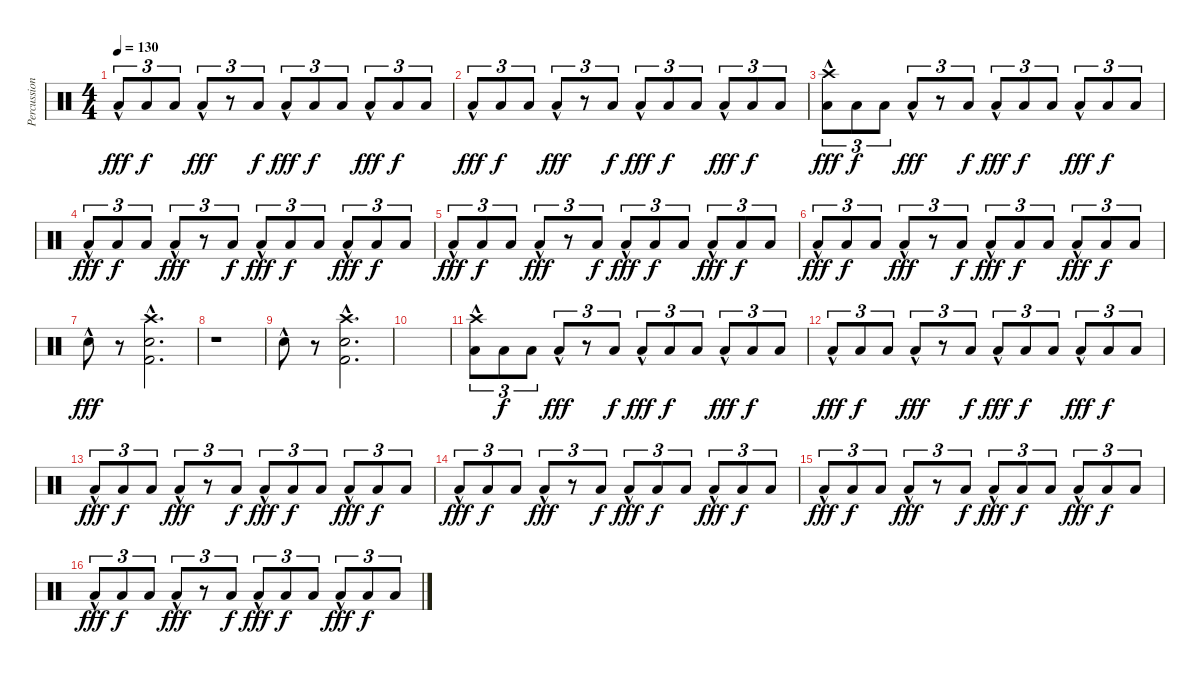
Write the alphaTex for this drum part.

\track ("Percussion" "Percussion") {instrument percussion}
\staff {score}
\articulation defaults
\ts (4 4)
\tempo 130
\clef neutral
\ks c "Low Tom (hit)"{hac}.8{tu (3 2) dy fff} "Low Tom (hit)".8{tu (3 2) dy f} "Low Tom (hit)".8{tu (3 2)} "Low Tom (hit)"{hac}.8{tu (3 2) dy fff}
r.8{tu (3 2)} "Low Tom (hit)".8{tu (3 2) dy f} "Low Tom (hit)"{hac}.8{tu (3 2) dy fff} "Low Tom (hit)".8{tu (3 2) dy f} "Low Tom (hit)".8{tu (3 2)} "Low Tom (hit)"{hac}.8{tu (3 2) dy fff} "Low Tom (hit)".8{tu (3 2) dy f} "Low Tom (hit)".8{tu (3 2)} |
"Low Tom (hit)"{hac}.8{tu (3 2) dy fff} "Low Tom (hit)".8{tu (3 2) dy f} "Low Tom (hit)".8{tu (3 2)} "Low Tom (hit)"{hac}.8{tu (3 2) dy fff} r.8{tu (3 2)} "Low Tom (hit)".8{tu (3 2) dy f} "Low Tom (hit)"{hac}.8{tu (3 2) dy fff} "Low Tom (hit)".8{tu (3 2) dy f} "Low Tom (hit)".8{tu (3 2)} "Low Tom (hit)"{hac}.8{tu (3 2) dy fff} "Low Tom (hit)".8{tu (3 2) dy f} "Low Tom (hit)".8{tu (3 2)} |
("Crash high (hit)"{hac} "Low Tom (hit)"{hac}).8{tu (3 2) dy fff} "Low Tom (hit)".8{tu (3 2) dy f} "Low Tom (hit)".8{tu (3 2)} "Low Tom (hit)"{hac}.8{tu (3 2) dy fff} r.8{tu (3 2)} "Low Tom (hit)".8{tu (3 2) dy f} "Low Tom (hit)"{hac}.8{tu (3 2) dy fff} "Low Tom (hit)".8{tu (3 2) dy f} "Low Tom (hit)".8{tu (3 2)} "Low Tom (hit)"{hac}.8{tu (3 2) dy fff} "Low Tom (hit)".8{tu (3 2) dy f} "Low Tom (hit)".8{tu (3 2)} |
"Low Tom (hit)"{hac}.8{tu (3 2) dy fff} "Low Tom (hit)".8{tu (3 2) dy f} "Low Tom (hit)".8{tu (3 2)} "Low Tom (hit)"{hac}.8{tu (3 2) dy fff} r.8{tu (3 2)} "Low Tom (hit)".8{tu (3 2) dy f} "Low Tom (hit)"{hac}.8{tu (3 2) dy fff} "Low Tom (hit)".8{tu (3 2) dy f} "Low Tom (hit)".8{tu (3 2)} "Low Tom (hit)"{hac}.8{tu (3 2) dy fff} "Low Tom (hit)".8{tu (3 2) dy f} "Low Tom (hit)".8{tu (3 2)} |
"Low Tom (hit)"{hac}.8{tu (3 2) dy fff} "Low Tom (hit)".8{tu (3 2) dy f} "Low Tom (hit)".8{tu (3 2)} "Low Tom (hit)"{hac}.8{tu (3 2) dy fff} r.8{tu (3 2)} "Low Tom (hit)".8{tu (3 2) dy f} "Low Tom (hit)"{hac}.8{tu (3 2) dy fff} "Low Tom (hit)".8{tu (3 2) dy f} "Low Tom (hit)".8{tu (3 2)} "Low Tom (hit)"{hac}.8{tu (3 2) dy fff} "Low Tom (hit)".8{tu (3 2) dy f} "Low Tom (hit)".8{tu (3 2)} |
"Low Tom (hit)"{hac}.8{tu (3 2) dy fff} "Low Tom (hit)".8{tu (3 2) dy f} "Low Tom (hit)".8{tu (3 2)} "Low Tom (hit)"{hac}.8{tu (3 2) dy fff} r.8{tu (3 2)} "Low Tom (hit)".8{tu (3 2) dy f} "Low Tom (hit)"{hac}.8{tu (3 2) dy fff} "Low Tom (hit)".8{tu (3 2) dy f} "Low Tom (hit)".8{tu (3 2)} "Low Tom (hit)"{hac}.8{tu (3 2) dy fff} "Low Tom (hit)".8{tu (3 2) dy f} "Low Tom (hit)".8{tu (3 2)} |
"Snare (hit) 2"{hac}.8{dy fff} r.8 ("Crash high (hit)"{hac} "Snare (hit) 2"{hac} "Kick (hit) 2"{hac}).2{d} |
r.1 |
"Snare (hit) 2"{hac}.8 r.8 ("Crash high (hit)"{hac} "Snare (hit) 2"{hac} "Kick (hit) 2"{hac}).2{d} |
|
("Crash high (hit)"{hac} "Low Tom (hit)"{hac}).8{tu (3 2)} "Low Tom (hit)".8{tu (3 2) dy f} "Low Tom (hit)".8{tu (3 2)} "Low Tom (hit)"{hac}.8{tu (3 2) dy fff} r.8{tu (3 2)} "Low Tom (hit)".8{tu (3 2) dy f} "Low Tom (hit)"{hac}.8{tu (3 2) dy fff} "Low Tom (hit)".8{tu (3 2) dy f} "Low Tom (hit)".8{tu (3 2)} "Low Tom (hit)"{hac}.8{tu (3 2) dy fff} "Low Tom (hit)".8{tu (3 2) dy f} "Low Tom (hit)".8{tu (3 2)} |
"Low Tom (hit)"{hac}.8{tu (3 2) dy fff volume 8} "Low Tom (hit)".8{tu (3 2) dy f} "Low Tom (hit)".8{tu (3 2)} "Low Tom (hit)"{hac}.8{tu (3 2) dy fff} r.8{tu (3 2)} "Low Tom (hit)".8{tu (3 2) dy f} "Low Tom (hit)"{hac}.8{tu (3 2) dy fff} "Low Tom (hit)".8{tu (3 2) dy f} "Low Tom (hit)".8{tu (3 2)} "Low Tom (hit)"{hac}.8{tu (3 2) dy fff} "Low Tom (hit)".8{tu (3 2) dy f} "Low Tom (hit)".8{tu (3 2)} |
"Low Tom (hit)"{hac}.8{tu (3 2) dy fff} "Low Tom (hit)".8{tu (3 2) dy f} "Low Tom (hit)".8{tu (3 2)} "Low Tom (hit)"{hac}.8{tu (3 2) dy fff} r.8{tu (3 2)} "Low Tom (hit)".8{tu (3 2) dy f} "Low Tom (hit)"{hac}.8{tu (3 2) dy fff} "Low Tom (hit)".8{tu (3 2) dy f} "Low Tom (hit)".8{tu (3 2)} "Low Tom (hit)"{hac}.8{tu (3 2) dy fff} "Low Tom (hit)".8{tu (3 2) dy f} "Low Tom (hit)".8{tu (3 2)} |
"Low Tom (hit)"{hac}.8{tu (3 2) dy fff} "Low Tom (hit)".8{tu (3 2) dy f} "Low Tom (hit)".8{tu (3 2)} "Low Tom (hit)"{hac}.8{tu (3 2) dy fff} r.8{tu (3 2)} "Low Tom (hit)".8{tu (3 2) dy f} "Low Tom (hit)"{hac}.8{tu (3 2) dy fff} "Low Tom (hit)".8{tu (3 2) dy f} "Low Tom (hit)".8{tu (3 2)} "Low Tom (hit)"{hac}.8{tu (3 2) dy fff} "Low Tom (hit)".8{tu (3 2) dy f} "Low Tom (hit)".8{tu (3 2)} |
"Low Tom (hit)"{hac}.8{tu (3 2) dy fff} "Low Tom (hit)".8{tu (3 2) dy f} "Low Tom (hit)".8{tu (3 2)} "Low Tom (hit)"{hac}.8{tu (3 2) dy fff} r.8{tu (3 2)} "Low Tom (hit)".8{tu (3 2) dy f} "Low Tom (hit)"{hac}.8{tu (3 2) dy fff} "Low Tom (hit)".8{tu (3 2) dy f} "Low Tom (hit)".8{tu (3 2)} "Low Tom (hit)"{hac}.8{tu (3 2) dy fff} "Low Tom (hit)".8{tu (3 2) dy f} "Low Tom (hit)".8{tu (3 2)} |
"Low Tom (hit)"{hac}.8{tu (3 2) dy fff} "Low Tom (hit)".8{tu (3 2) dy f} "Low Tom (hit)".8{tu (3 2)} "Low Tom (hit)"{hac}.8{tu (3 2) dy fff} r.8{tu (3 2)} "Low Tom (hit)".8{tu (3 2) dy f} "Low Tom (hit)"{hac}.8{tu (3 2) dy fff} "Low Tom (hit)".8{tu (3 2) dy f} "Low Tom (hit)".8{tu (3 2)} "Low Tom (hit)"{hac}.8{tu (3 2) dy fff} "Low Tom (hit)".8{tu (3 2) dy f} "Low Tom (hit)".8{tu (3 2)}
